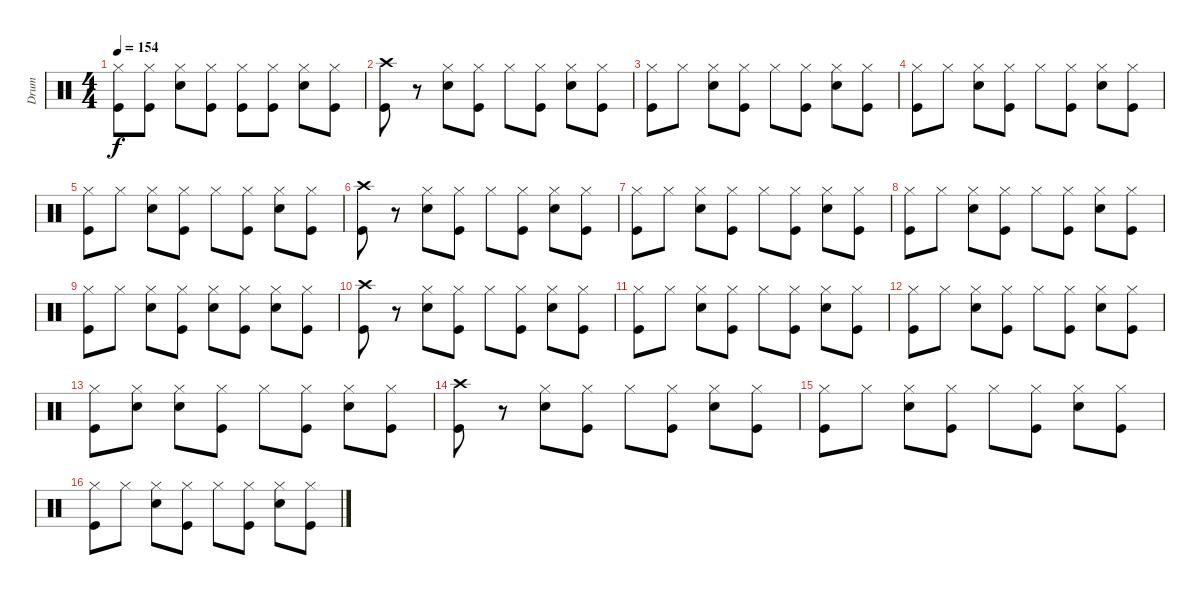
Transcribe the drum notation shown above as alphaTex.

\track ("Drum" "Drum") {instrument percussion}
\staff {score}
\articulation defaults
\ts (4 4)
\tempo 154
\clef neutral
\ks c
("Kick (hit)" "Hi-Hat (closed)").8{dy f} ("Kick (hit)" "Hi-Hat (closed)").8 ("Snare (hit) 2" "Hi-Hat (closed)").8 ("Kick (hit)" "Hi-Hat (closed)").8 ("Kick (hit)" "Hi-Hat (closed)").8 ("Kick (hit)" "Hi-Hat (closed)").8 ("Snare (hit) 2" "Hi-Hat (closed)").8 ("Kick (hit)" "Hi-Hat (closed)").8 |
("Kick (hit)" "Crash high (hit)").8 r.8 ("Snare (hit) 2" "Hi-Hat (closed)").8 ("Kick (hit)" "Hi-Hat (closed)").8 "Hi-Hat (closed)".8 ("Kick (hit)" "Hi-Hat (closed)").8 ("Snare (hit) 2" "Hi-Hat (closed)").8 ("Kick (hit)" "Hi-Hat (closed)").8 |
("Kick (hit)" "Hi-Hat (closed)").8 "Hi-Hat (closed)".8 ("Snare (hit) 2" "Hi-Hat (closed)").8 ("Kick (hit)" "Hi-Hat (closed)").8 "Hi-Hat (closed)".8 ("Kick (hit)" "Hi-Hat (closed)").8 ("Snare (hit) 2" "Hi-Hat (closed)").8 ("Kick (hit)" "Hi-Hat (closed)").8 |
("Kick (hit)" "Hi-Hat (closed)").8 "Hi-Hat (closed)".8 ("Snare (hit) 2" "Hi-Hat (closed)").8 ("Kick (hit)" "Hi-Hat (closed)").8 "Hi-Hat (closed)".8 ("Kick (hit)" "Hi-Hat (closed)").8 ("Snare (hit) 2" "Hi-Hat (closed)").8 ("Kick (hit)" "Hi-Hat (closed)").8 |
("Kick (hit)" "Hi-Hat (closed)").8 "Hi-Hat (closed)".8 ("Snare (hit) 2" "Hi-Hat (closed)").8 ("Kick (hit)" "Hi-Hat (closed)").8 "Hi-Hat (closed)".8 ("Kick (hit)" "Hi-Hat (closed)").8 ("Snare (hit) 2" "Hi-Hat (closed)").8 ("Kick (hit)" "Hi-Hat (closed)").8 |
("Kick (hit)" "Crash high (hit)").8 r.8 ("Snare (hit) 2" "Hi-Hat (closed)").8 ("Kick (hit)" "Hi-Hat (closed)").8 "Hi-Hat (closed)".8 ("Kick (hit)" "Hi-Hat (closed)").8 ("Snare (hit) 2" "Hi-Hat (closed)").8 ("Kick (hit)" "Hi-Hat (closed)").8 |
("Kick (hit)" "Hi-Hat (closed)").8 "Hi-Hat (closed)".8 ("Snare (hit) 2" "Hi-Hat (closed)").8 ("Kick (hit)" "Hi-Hat (closed)").8 "Hi-Hat (closed)".8 ("Kick (hit)" "Hi-Hat (closed)").8 ("Snare (hit) 2" "Hi-Hat (closed)").8 ("Kick (hit)" "Hi-Hat (closed)").8 |
("Kick (hit)" "Hi-Hat (closed)").8 "Hi-Hat (closed)".8 ("Snare (hit) 2" "Hi-Hat (closed)").8 ("Kick (hit)" "Hi-Hat (closed)").8 "Hi-Hat (closed)".8 ("Kick (hit)" "Hi-Hat (closed)").8 ("Snare (hit) 2" "Hi-Hat (closed)").8 ("Kick (hit)" "Hi-Hat (closed)").8 |
("Kick (hit)" "Hi-Hat (closed)").8 "Hi-Hat (closed)".8 ("Snare (hit) 2" "Hi-Hat (closed)").8 ("Kick (hit)" "Hi-Hat (closed)").8 ("Snare (hit) 2" "Hi-Hat (closed)").8 ("Kick (hit)" "Hi-Hat (closed)").8 ("Snare (hit) 2" "Hi-Hat (closed)").8 ("Kick (hit)" "Hi-Hat (closed)").8 |
("Kick (hit)" "Crash high (hit)").8 r.8 ("Snare (hit) 2" "Hi-Hat (closed)").8 ("Kick (hit)" "Hi-Hat (closed)").8 "Hi-Hat (closed)".8 ("Kick (hit)" "Hi-Hat (closed)").8 ("Snare (hit) 2" "Hi-Hat (closed)").8 ("Kick (hit)" "Hi-Hat (closed)").8 |
("Kick (hit)" "Hi-Hat (closed)").8 "Hi-Hat (closed)".8 ("Snare (hit) 2" "Hi-Hat (closed)").8 ("Kick (hit)" "Hi-Hat (closed)").8 "Hi-Hat (closed)".8 ("Kick (hit)" "Hi-Hat (closed)").8 ("Snare (hit) 2" "Hi-Hat (closed)").8 ("Kick (hit)" "Hi-Hat (closed)").8 |
("Kick (hit)" "Hi-Hat (closed)").8 "Hi-Hat (closed)".8 ("Snare (hit) 2" "Hi-Hat (closed)").8 ("Kick (hit)" "Hi-Hat (closed)").8 "Hi-Hat (closed)".8 ("Kick (hit)" "Hi-Hat (closed)").8 ("Snare (hit) 2" "Hi-Hat (closed)").8 ("Kick (hit)" "Hi-Hat (closed)").8 |
("Kick (hit)" "Hi-Hat (closed)").8 ("Snare (hit) 2" "Hi-Hat (closed)").8 ("Snare (hit) 2" "Hi-Hat (closed)").8 ("Kick (hit)" "Hi-Hat (closed)").8 "Hi-Hat (closed)".8 ("Kick (hit)" "Hi-Hat (closed)").8 ("Snare (hit) 2" "Hi-Hat (closed)").8 ("Kick (hit)" "Hi-Hat (closed)").8 |
("Kick (hit)" "Crash high (hit)").8 r.8 ("Snare (hit) 2" "Hi-Hat (closed)").8 ("Kick (hit)" "Hi-Hat (closed)").8 "Hi-Hat (closed)".8 ("Kick (hit)" "Hi-Hat (closed)").8 ("Snare (hit) 2" "Hi-Hat (closed)").8 ("Kick (hit)" "Hi-Hat (closed)").8 |
("Kick (hit)" "Hi-Hat (closed)").8 "Hi-Hat (closed)".8 ("Snare (hit) 2" "Hi-Hat (closed)").8 ("Kick (hit)" "Hi-Hat (closed)").8 "Hi-Hat (closed)".8 ("Kick (hit)" "Hi-Hat (closed)").8 ("Snare (hit) 2" "Hi-Hat (closed)").8 ("Kick (hit)" "Hi-Hat (closed)").8 |
("Kick (hit)" "Hi-Hat (closed)").8 "Hi-Hat (closed)".8 ("Snare (hit) 2" "Hi-Hat (closed)").8 ("Kick (hit)" "Hi-Hat (closed)").8 "Hi-Hat (closed)".8 ("Kick (hit)" "Hi-Hat (closed)").8 ("Snare (hit) 2" "Hi-Hat (closed)").8 ("Kick (hit)" "Hi-Hat (closed)").8
